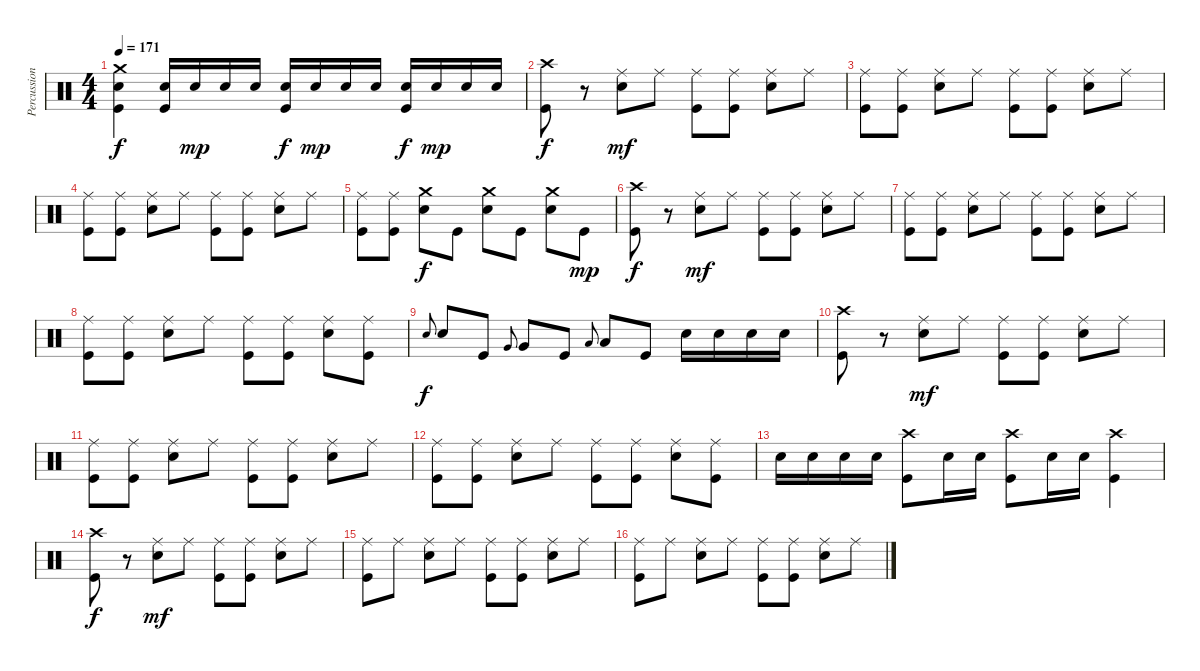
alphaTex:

\track ("Percussion" "Percussion") {instrument percussion}
\staff {score}
\articulation defaults
\ts (4 4)
\tempo 171
\clef neutral
\ks c
("Crash medium (hit)" "Electric Snare (hit)" "Kick (hit)").4{dy f} ("Electric Snare (hit)" "Kick (hit)").16 "Electric Snare (hit)".16{dy mp} "Electric Snare (hit)".16 "Electric Snare (hit)".16 ("Electric Snare (hit)" "Kick (hit)").16{dy f} "Electric Snare (hit)".16{dy mp} "Electric Snare (hit)".16 "Electric Snare (hit)".16 ("Electric Snare (hit)" "Kick (hit)").16{dy f} "Electric Snare (hit)".16{dy mp} "Electric Snare (hit)".16 "Electric Snare (hit)".16 |
("Crash high (hit)" "Kick (hit)").8{dy f} r.8 ("Ride (middle)" "Electric Snare (hit)").8{dy mf} "Ride (middle)".8 ("Ride (middle)" "Kick (hit)").8 ("Ride (middle)" "Kick (hit)").8 ("Ride (middle)" "Electric Snare (hit)").8 "Ride (middle)".8 |
("Ride (middle)" "Kick (hit)").8 ("Ride (middle)" "Kick (hit)").8 ("Ride (middle)" "Electric Snare (hit)").8 "Ride (middle)".8 ("Ride (middle)" "Kick (hit)").8 ("Ride (middle)" "Kick (hit)").8 ("Ride (middle)" "Electric Snare (hit)").8 "Ride (middle)".8 |
("Ride (middle)" "Kick (hit)").8 ("Ride (middle)" "Kick (hit)").8 ("Ride (middle)" "Electric Snare (hit)").8 "Ride (middle)".8 ("Ride (middle)" "Kick (hit)").8 ("Ride (middle)" "Kick (hit)").8 ("Ride (middle)" "Electric Snare (hit)").8 "Ride (middle)".8 |
("Ride (middle)" "Kick (hit)").8 ("Ride (middle)" "Kick (hit)").8 ("Crash medium (hit)" "Electric Snare (hit)").8{dy f} "Kick (hit)".8 ("Crash medium (hit)" "Electric Snare (hit)").8 "Kick (hit)".8 ("Crash medium (hit)" "Electric Snare (hit)").8 "Kick (hit)".8{dy mp} |
("Crash high (hit)" "Kick (hit)").8{dy f} r.8 ("Ride (middle)" "Electric Snare (hit)").8{dy mf} "Ride (middle)".8 ("Ride (middle)" "Kick (hit)").8 ("Ride (middle)" "Kick (hit)").8 ("Ride (middle)" "Electric Snare (hit)").8 "Ride (middle)".8 |
("Ride (middle)" "Kick (hit)").8 ("Ride (middle)" "Kick (hit)").8 ("Ride (middle)" "Electric Snare (hit)").8 "Ride (middle)".8 ("Ride (middle)" "Kick (hit)").8 ("Ride (middle)" "Kick (hit)").8 ("Ride (middle)" "Electric Snare (hit)").8 "Ride (middle)".8 |
("Ride (middle)" "Kick (hit)").8 ("Ride (middle)" "Kick (hit)").8 ("Ride (middle)" "Electric Snare (hit)").8 "Ride (middle)".8 ("Ride (middle)" "Kick (hit)").8 ("Ride (middle)" "Kick (hit)").8 ("Ride (middle)" "Electric Snare (hit)").8 ("Ride (middle)" "Kick (hit)").8 |
"Electric Snare (hit)".8{gr onbeat dy f} "Electric Snare (hit)".8 "Kick (hit)".8 "Very Low Tom (hit)".8{gr onbeat} "Very Low Tom (hit)".8 "Kick (hit)".8 "Low Floor Tom (hit)".8{gr onbeat} "Low Floor Tom (hit)".8 "Kick (hit)".8 "Electric Snare (hit)".16 "Electric Snare (hit)".16 "Electric Snare (hit)".16 "Electric Snare (hit)".16 |
("Crash high (hit)" "Kick (hit)").8 r.8 ("Ride (middle)" "Electric Snare (hit)").8{dy mf} "Ride (middle)".8 ("Ride (middle)" "Kick (hit)").8 ("Ride (middle)" "Kick (hit)").8 ("Ride (middle)" "Electric Snare (hit)").8 "Ride (middle)".8 |
("Ride (middle)" "Kick (hit)").8 ("Ride (middle)" "Kick (hit)").8 ("Ride (middle)" "Electric Snare (hit)").8 "Ride (middle)".8 ("Ride (middle)" "Kick (hit)").8 ("Ride (middle)" "Kick (hit)").8 ("Ride (middle)" "Electric Snare (hit)").8 "Ride (middle)".8 |
("Ride (middle)" "Kick (hit)").8 ("Ride (middle)" "Kick (hit)").8 ("Ride (middle)" "Electric Snare (hit)").8 "Ride (middle)".8 ("Ride (middle)" "Kick (hit)").8 ("Ride (middle)" "Kick (hit)").8 ("Ride (middle)" "Electric Snare (hit)").8 ("Ride (middle)" "Kick (hit)").8 |
"Electric Snare (hit)".16 "Electric Snare (hit)".16 "Electric Snare (hit)".16 "Electric Snare (hit)".16 ("Crash high (hit)" "Kick (hit)").8 "Electric Snare (hit)".16 "Electric Snare (hit)".16 ("Crash high (hit)" "Kick (hit)").8 "Electric Snare (hit)".16 "Electric Snare (hit)".16 ("Crash high (hit)" "Kick (hit)").4 |
("Crash high (hit)" "Kick (hit)").8{dy f} r.8 ("Ride (middle)" "Electric Snare (hit)").8{dy mf} "Ride (middle)".8 ("Ride (middle)" "Kick (hit)").8 ("Ride (middle)" "Kick (hit)").8 ("Ride (middle)" "Electric Snare (hit)").8 "Ride (middle)".8 |
("Ride (middle)" "Kick (hit)").8 "Ride (middle)".8 ("Ride (middle)" "Electric Snare (hit)").8 "Ride (middle)".8 ("Ride (middle)" "Kick (hit)").8 ("Ride (middle)" "Kick (hit)").8 ("Ride (middle)" "Electric Snare (hit)").8 "Ride (middle)".8 |
("Ride (middle)" "Kick (hit)").8 "Ride (middle)".8 ("Ride (middle)" "Electric Snare (hit)").8 "Ride (middle)".8 ("Ride (middle)" "Kick (hit)").8 ("Ride (middle)" "Kick (hit)").8 ("Ride (middle)" "Electric Snare (hit)").8 "Ride (middle)".8
